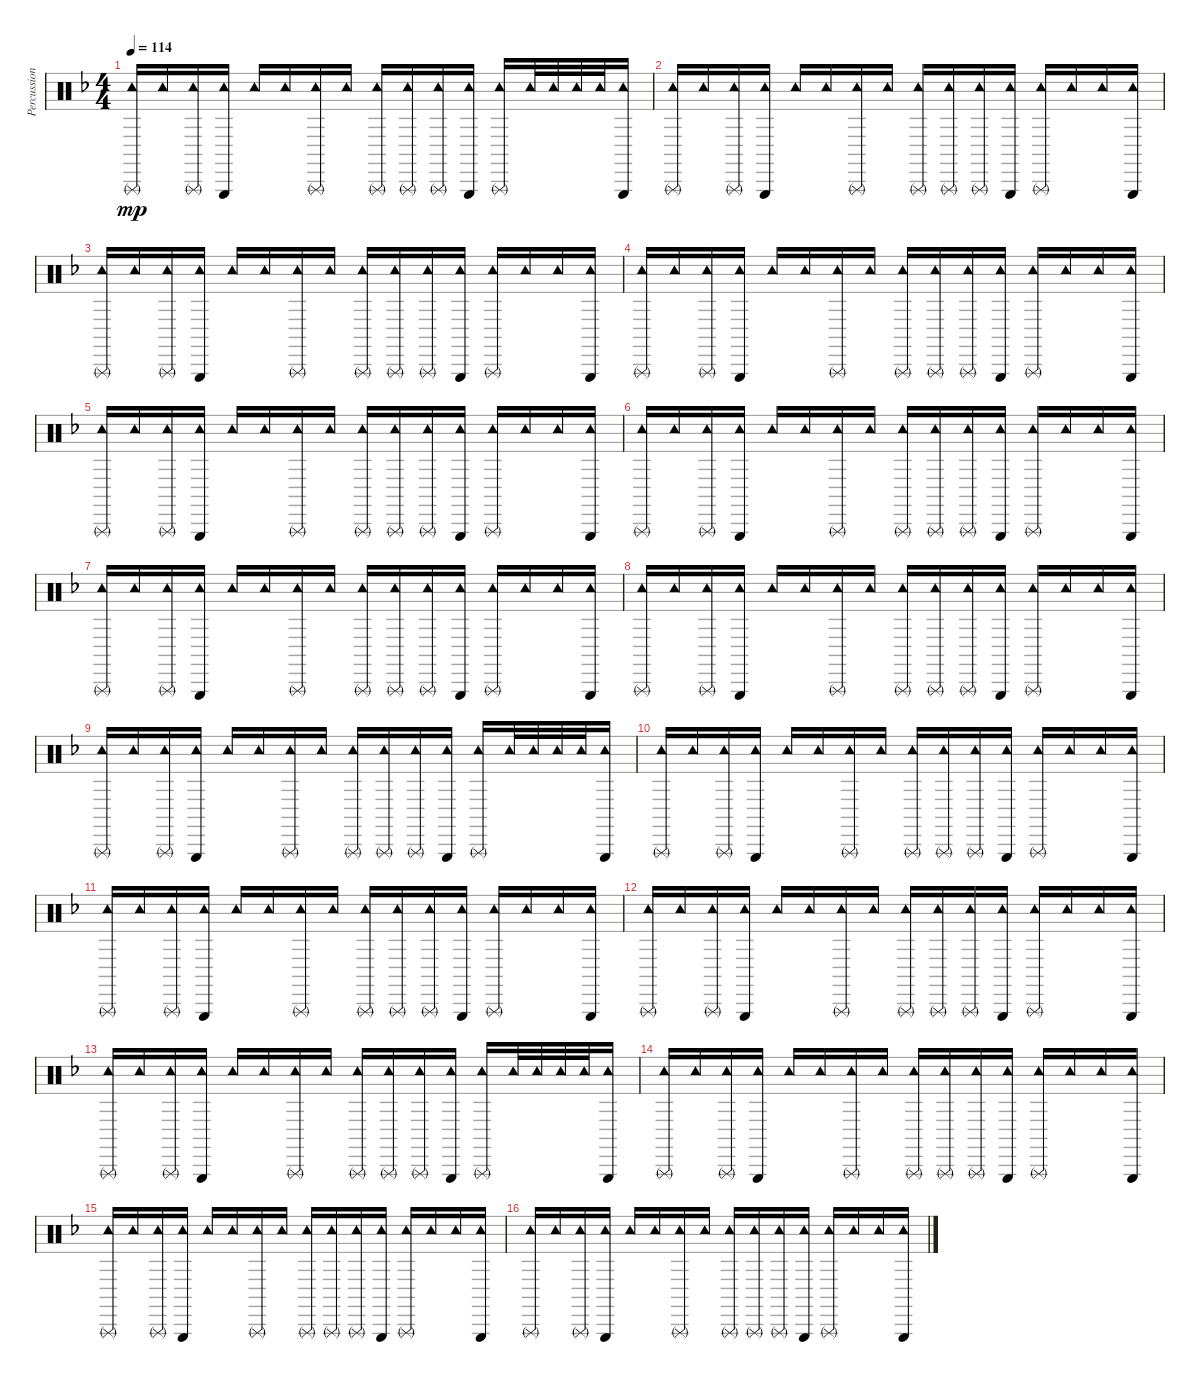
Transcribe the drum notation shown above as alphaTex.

\track ("Percussion" "Percussion") {instrument percussion}
\staff {score}
\articulation defaults
\ts (4 4)
\tempo 114
\clef neutral
\ks f
("Triangle (rnute)" "Tambourine (hit)").16{dy mp} "Tambourine (hit)".16 ("Triangle (rnute)" "Tambourine (hit)").16 ("Triangle (hit)" "Tambourine (hit)").16 "Tambourine (hit)".16 "Tambourine (hit)".16 ("Triangle (rnute)" "Tambourine (hit)").16 "Tambourine (hit)".16 ("Triangle (rnute)" "Tambourine (hit)").16 ("Triangle (rnute)" "Tambourine (hit)").16 ("Triangle (rnute)" "Tambourine (hit)").16 ("Triangle (hit)" "Tambourine (hit)").16 ("Triangle (rnute)" "Tambourine (hit)").16 "Tambourine (hit)".32 "Tambourine (hit)".32 "Tambourine (hit)".32 "Tambourine (hit)".32 ("Triangle (hit)" "Tambourine (hit)").16 |
("Triangle (rnute)" "Tambourine (hit)").16 "Tambourine (hit)".16 ("Triangle (rnute)" "Tambourine (hit)").16 ("Triangle (hit)" "Tambourine (hit)").16 "Tambourine (hit)".16 "Tambourine (hit)".16 ("Triangle (rnute)" "Tambourine (hit)").16 "Tambourine (hit)".16 ("Triangle (rnute)" "Tambourine (hit)").16 ("Triangle (rnute)" "Tambourine (hit)").16 ("Triangle (rnute)" "Tambourine (hit)").16 ("Triangle (hit)" "Tambourine (hit)").16 ("Triangle (rnute)" "Tambourine (hit)").16 "Tambourine (hit)".16 "Tambourine (hit)".16 ("Triangle (hit)" "Tambourine (hit)").16 |
("Triangle (rnute)" "Tambourine (hit)").16 "Tambourine (hit)".16 ("Triangle (rnute)" "Tambourine (hit)").16 ("Triangle (hit)" "Tambourine (hit)").16 "Tambourine (hit)".16 "Tambourine (hit)".16 ("Triangle (rnute)" "Tambourine (hit)").16 "Tambourine (hit)".16 ("Triangle (rnute)" "Tambourine (hit)").16 ("Triangle (rnute)" "Tambourine (hit)").16 ("Triangle (rnute)" "Tambourine (hit)").16 ("Triangle (hit)" "Tambourine (hit)").16 ("Triangle (rnute)" "Tambourine (hit)").16 "Tambourine (hit)".16 "Tambourine (hit)".16 ("Triangle (hit)" "Tambourine (hit)").16 |
("Triangle (rnute)" "Tambourine (hit)").16 "Tambourine (hit)".16 ("Triangle (rnute)" "Tambourine (hit)").16 ("Triangle (hit)" "Tambourine (hit)").16 "Tambourine (hit)".16 "Tambourine (hit)".16 ("Triangle (rnute)" "Tambourine (hit)").16 "Tambourine (hit)".16 ("Triangle (rnute)" "Tambourine (hit)").16 ("Triangle (rnute)" "Tambourine (hit)").16 ("Triangle (rnute)" "Tambourine (hit)").16 ("Triangle (hit)" "Tambourine (hit)").16 ("Triangle (rnute)" "Tambourine (hit)").16 "Tambourine (hit)".16 "Tambourine (hit)".16 ("Triangle (hit)" "Tambourine (hit)").16 |
("Triangle (rnute)" "Tambourine (hit)").16 "Tambourine (hit)".16 ("Triangle (rnute)" "Tambourine (hit)").16 ("Triangle (hit)" "Tambourine (hit)").16 "Tambourine (hit)".16 "Tambourine (hit)".16 ("Triangle (rnute)" "Tambourine (hit)").16 "Tambourine (hit)".16 ("Triangle (rnute)" "Tambourine (hit)").16 ("Triangle (rnute)" "Tambourine (hit)").16 ("Triangle (rnute)" "Tambourine (hit)").16 ("Triangle (hit)" "Tambourine (hit)").16 ("Triangle (rnute)" "Tambourine (hit)").16 "Tambourine (hit)".16 "Tambourine (hit)".16 ("Triangle (hit)" "Tambourine (hit)").16 |
("Triangle (rnute)" "Tambourine (hit)").16 "Tambourine (hit)".16 ("Triangle (rnute)" "Tambourine (hit)").16 ("Triangle (hit)" "Tambourine (hit)").16 "Tambourine (hit)".16 "Tambourine (hit)".16 ("Triangle (rnute)" "Tambourine (hit)").16 "Tambourine (hit)".16 ("Triangle (rnute)" "Tambourine (hit)").16 ("Triangle (rnute)" "Tambourine (hit)").16 ("Triangle (rnute)" "Tambourine (hit)").16 ("Triangle (hit)" "Tambourine (hit)").16 ("Triangle (rnute)" "Tambourine (hit)").16 "Tambourine (hit)".16 "Tambourine (hit)".16 ("Triangle (hit)" "Tambourine (hit)").16 |
("Triangle (rnute)" "Tambourine (hit)").16 "Tambourine (hit)".16 ("Triangle (rnute)" "Tambourine (hit)").16 ("Triangle (hit)" "Tambourine (hit)").16 "Tambourine (hit)".16 "Tambourine (hit)".16 ("Triangle (rnute)" "Tambourine (hit)").16 "Tambourine (hit)".16 ("Triangle (rnute)" "Tambourine (hit)").16 ("Triangle (rnute)" "Tambourine (hit)").16 ("Triangle (rnute)" "Tambourine (hit)").16 ("Triangle (hit)" "Tambourine (hit)").16 ("Triangle (rnute)" "Tambourine (hit)").16 "Tambourine (hit)".16 "Tambourine (hit)".16 ("Triangle (hit)" "Tambourine (hit)").16 |
("Triangle (rnute)" "Tambourine (hit)").16 "Tambourine (hit)".16 ("Triangle (rnute)" "Tambourine (hit)").16 ("Triangle (hit)" "Tambourine (hit)").16 "Tambourine (hit)".16 "Tambourine (hit)".16 ("Triangle (rnute)" "Tambourine (hit)").16 "Tambourine (hit)".16 ("Triangle (rnute)" "Tambourine (hit)").16 ("Triangle (rnute)" "Tambourine (hit)").16 ("Triangle (rnute)" "Tambourine (hit)").16 ("Triangle (hit)" "Tambourine (hit)").16 ("Triangle (rnute)" "Tambourine (hit)").16 "Tambourine (hit)".16 "Tambourine (hit)".16 ("Triangle (hit)" "Tambourine (hit)").16 |
("Triangle (rnute)" "Tambourine (hit)").16 "Tambourine (hit)".16 ("Triangle (rnute)" "Tambourine (hit)").16 ("Triangle (hit)" "Tambourine (hit)").16 "Tambourine (hit)".16 "Tambourine (hit)".16 ("Triangle (rnute)" "Tambourine (hit)").16 "Tambourine (hit)".16 ("Triangle (rnute)" "Tambourine (hit)").16 ("Triangle (rnute)" "Tambourine (hit)").16 ("Triangle (rnute)" "Tambourine (hit)").16 ("Triangle (hit)" "Tambourine (hit)").16 ("Triangle (rnute)" "Tambourine (hit)").16 "Tambourine (hit)".32 "Tambourine (hit)".32 "Tambourine (hit)".32 "Tambourine (hit)".32 ("Triangle (hit)" "Tambourine (hit)").16 |
("Triangle (rnute)" "Tambourine (hit)").16 "Tambourine (hit)".16 ("Triangle (rnute)" "Tambourine (hit)").16 ("Triangle (hit)" "Tambourine (hit)").16 "Tambourine (hit)".16 "Tambourine (hit)".16 ("Triangle (rnute)" "Tambourine (hit)").16 "Tambourine (hit)".16 ("Triangle (rnute)" "Tambourine (hit)").16 ("Triangle (rnute)" "Tambourine (hit)").16 ("Triangle (rnute)" "Tambourine (hit)").16 ("Triangle (hit)" "Tambourine (hit)").16 ("Triangle (rnute)" "Tambourine (hit)").16 "Tambourine (hit)".16 "Tambourine (hit)".16 ("Triangle (hit)" "Tambourine (hit)").16 |
("Triangle (rnute)" "Tambourine (hit)").16 "Tambourine (hit)".16 ("Triangle (rnute)" "Tambourine (hit)").16 ("Triangle (hit)" "Tambourine (hit)").16 "Tambourine (hit)".16 "Tambourine (hit)".16 ("Triangle (rnute)" "Tambourine (hit)").16 "Tambourine (hit)".16 ("Triangle (rnute)" "Tambourine (hit)").16 ("Triangle (rnute)" "Tambourine (hit)").16 ("Triangle (rnute)" "Tambourine (hit)").16 ("Triangle (hit)" "Tambourine (hit)").16 ("Triangle (rnute)" "Tambourine (hit)").16 "Tambourine (hit)".16 "Tambourine (hit)".16 ("Triangle (hit)" "Tambourine (hit)").16 |
("Triangle (rnute)" "Tambourine (hit)").16 "Tambourine (hit)".16 ("Triangle (rnute)" "Tambourine (hit)").16 ("Triangle (hit)" "Tambourine (hit)").16 "Tambourine (hit)".16 "Tambourine (hit)".16 ("Triangle (rnute)" "Tambourine (hit)").16 "Tambourine (hit)".16 ("Triangle (rnute)" "Tambourine (hit)").16 ("Triangle (rnute)" "Tambourine (hit)").16 ("Triangle (rnute)" "Tambourine (hit)").16 ("Triangle (hit)" "Tambourine (hit)").16 ("Triangle (rnute)" "Tambourine (hit)").16 "Tambourine (hit)".16 "Tambourine (hit)".16 ("Triangle (hit)" "Tambourine (hit)").16 |
("Triangle (rnute)" "Tambourine (hit)").16 "Tambourine (hit)".16 ("Triangle (rnute)" "Tambourine (hit)").16 ("Triangle (hit)" "Tambourine (hit)").16 "Tambourine (hit)".16 "Tambourine (hit)".16 ("Triangle (rnute)" "Tambourine (hit)").16 "Tambourine (hit)".16 ("Triangle (rnute)" "Tambourine (hit)").16 ("Triangle (rnute)" "Tambourine (hit)").16 ("Triangle (rnute)" "Tambourine (hit)").16 ("Triangle (hit)" "Tambourine (hit)").16 ("Triangle (rnute)" "Tambourine (hit)").16 "Tambourine (hit)".32 "Tambourine (hit)".32 "Tambourine (hit)".32 "Tambourine (hit)".32 ("Triangle (hit)" "Tambourine (hit)").16 |
("Triangle (rnute)" "Tambourine (hit)").16 "Tambourine (hit)".16 ("Triangle (rnute)" "Tambourine (hit)").16 ("Triangle (hit)" "Tambourine (hit)").16 "Tambourine (hit)".16 "Tambourine (hit)".16 ("Triangle (rnute)" "Tambourine (hit)").16 "Tambourine (hit)".16 ("Triangle (rnute)" "Tambourine (hit)").16 ("Triangle (rnute)" "Tambourine (hit)").16 ("Triangle (rnute)" "Tambourine (hit)").16 ("Triangle (hit)" "Tambourine (hit)").16 ("Triangle (rnute)" "Tambourine (hit)").16 "Tambourine (hit)".16 "Tambourine (hit)".16 ("Triangle (hit)" "Tambourine (hit)").16 |
("Triangle (rnute)" "Tambourine (hit)").16 "Tambourine (hit)".16 ("Triangle (rnute)" "Tambourine (hit)").16 ("Triangle (hit)" "Tambourine (hit)").16 "Tambourine (hit)".16 "Tambourine (hit)".16 ("Triangle (rnute)" "Tambourine (hit)").16 "Tambourine (hit)".16 ("Triangle (rnute)" "Tambourine (hit)").16 ("Triangle (rnute)" "Tambourine (hit)").16 ("Triangle (rnute)" "Tambourine (hit)").16 ("Triangle (hit)" "Tambourine (hit)").16 ("Triangle (rnute)" "Tambourine (hit)").16 "Tambourine (hit)".16 "Tambourine (hit)".16 ("Triangle (hit)" "Tambourine (hit)").16 |
("Triangle (rnute)" "Tambourine (hit)").16 "Tambourine (hit)".16 ("Triangle (rnute)" "Tambourine (hit)").16 ("Triangle (hit)" "Tambourine (hit)").16 "Tambourine (hit)".16 "Tambourine (hit)".16 ("Triangle (rnute)" "Tambourine (hit)").16 "Tambourine (hit)".16 ("Triangle (rnute)" "Tambourine (hit)").16 ("Triangle (rnute)" "Tambourine (hit)").16 ("Triangle (rnute)" "Tambourine (hit)").16 ("Triangle (hit)" "Tambourine (hit)").16 ("Triangle (rnute)" "Tambourine (hit)").16 "Tambourine (hit)".16 "Tambourine (hit)".16 ("Triangle (hit)" "Tambourine (hit)").16
